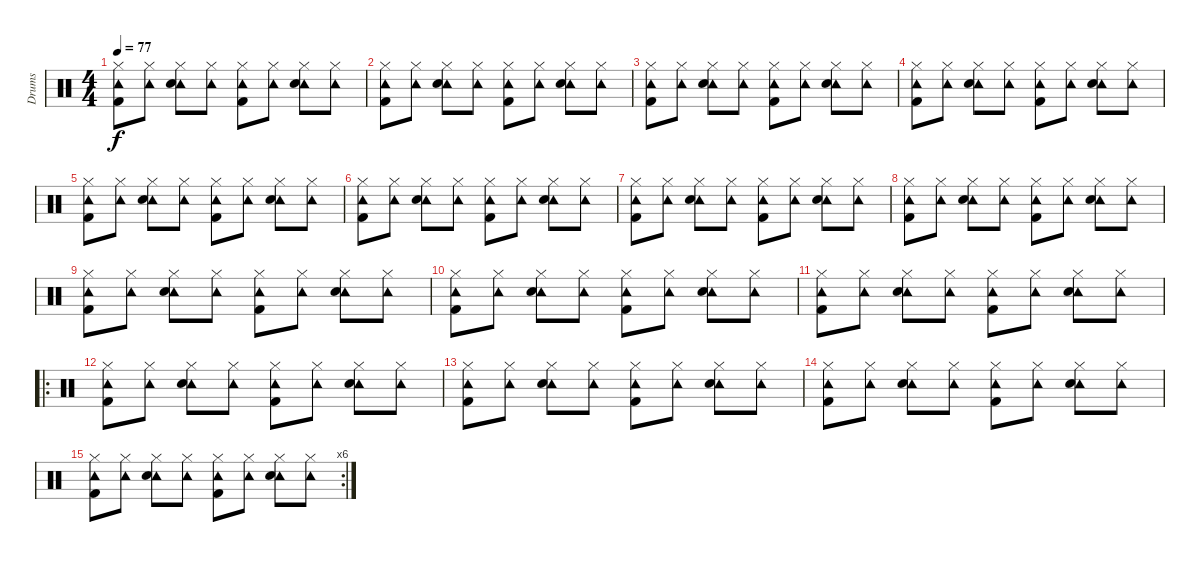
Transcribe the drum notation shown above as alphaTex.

\track ("Drums" "Drums") {instrument percussion}
\staff {score}
\articulation defaults
\ts (4 4)
\tempo 77
\clef neutral
\ks c
("Tambourine (hit)" "Hi-Hat (closed)" "Kick (hit) 2").8{dy f} ("Tambourine (hit)" "Hi-Hat (closed)").8 ("Tambourine (hit)" "Hi-Hat (closed)" "Electric Snare (hit)").8 ("Tambourine (hit)" "Hi-Hat (closed)").8 ("Tambourine (hit)" "Hi-Hat (closed)" "Kick (hit) 2").8 ("Tambourine (hit)" "Hi-Hat (closed)").8 ("Tambourine (hit)" "Hi-Hat (closed)" "Electric Snare (hit)").8 ("Tambourine (hit)" "Hi-Hat (closed)").8 |
("Tambourine (hit)" "Hi-Hat (closed)" "Kick (hit) 2").8 ("Tambourine (hit)" "Hi-Hat (closed)").8 ("Tambourine (hit)" "Hi-Hat (closed)" "Electric Snare (hit)").8 ("Tambourine (hit)" "Hi-Hat (closed)").8 ("Tambourine (hit)" "Hi-Hat (closed)" "Kick (hit) 2").8 ("Tambourine (hit)" "Hi-Hat (closed)").8 ("Tambourine (hit)" "Hi-Hat (closed)" "Electric Snare (hit)").8 ("Tambourine (hit)" "Hi-Hat (closed)").8 |
("Tambourine (hit)" "Hi-Hat (closed)" "Kick (hit) 2").8 ("Tambourine (hit)" "Hi-Hat (closed)").8 ("Tambourine (hit)" "Hi-Hat (closed)" "Electric Snare (hit)").8 ("Tambourine (hit)" "Hi-Hat (closed)").8 ("Tambourine (hit)" "Hi-Hat (closed)" "Kick (hit) 2").8 ("Tambourine (hit)" "Hi-Hat (closed)").8 ("Tambourine (hit)" "Hi-Hat (closed)" "Electric Snare (hit)").8 ("Tambourine (hit)" "Hi-Hat (closed)").8 |
("Tambourine (hit)" "Hi-Hat (closed)" "Kick (hit) 2").8 ("Tambourine (hit)" "Hi-Hat (closed)").8 ("Tambourine (hit)" "Hi-Hat (closed)" "Electric Snare (hit)").8 ("Tambourine (hit)" "Hi-Hat (closed)").8 ("Tambourine (hit)" "Hi-Hat (closed)" "Kick (hit) 2").8 ("Tambourine (hit)" "Hi-Hat (closed)").8 ("Tambourine (hit)" "Hi-Hat (closed)" "Electric Snare (hit)").8 ("Tambourine (hit)" "Hi-Hat (closed)").8 |
("Tambourine (hit)" "Hi-Hat (closed)" "Kick (hit) 2").8 ("Tambourine (hit)" "Hi-Hat (closed)").8 ("Tambourine (hit)" "Hi-Hat (closed)" "Electric Snare (hit)").8 ("Tambourine (hit)" "Hi-Hat (closed)").8 ("Tambourine (hit)" "Hi-Hat (closed)" "Kick (hit) 2").8 ("Tambourine (hit)" "Hi-Hat (closed)").8 ("Tambourine (hit)" "Hi-Hat (closed)" "Electric Snare (hit)").8 ("Tambourine (hit)" "Hi-Hat (closed)").8 |
("Tambourine (hit)" "Hi-Hat (closed)" "Kick (hit) 2").8 ("Tambourine (hit)" "Hi-Hat (closed)").8 ("Tambourine (hit)" "Hi-Hat (closed)" "Electric Snare (hit)").8 ("Tambourine (hit)" "Hi-Hat (closed)").8 ("Tambourine (hit)" "Hi-Hat (closed)" "Kick (hit) 2").8 ("Tambourine (hit)" "Hi-Hat (closed)").8 ("Tambourine (hit)" "Hi-Hat (closed)" "Electric Snare (hit)").8 ("Tambourine (hit)" "Hi-Hat (closed)").8 |
("Tambourine (hit)" "Hi-Hat (closed)" "Kick (hit) 2").8 ("Tambourine (hit)" "Hi-Hat (closed)").8 ("Tambourine (hit)" "Hi-Hat (closed)" "Electric Snare (hit)").8 ("Tambourine (hit)" "Hi-Hat (closed)").8 ("Tambourine (hit)" "Hi-Hat (closed)" "Kick (hit) 2").8 ("Tambourine (hit)" "Hi-Hat (closed)").8 ("Tambourine (hit)" "Hi-Hat (closed)" "Electric Snare (hit)").8 ("Tambourine (hit)" "Hi-Hat (closed)").8 |
("Tambourine (hit)" "Hi-Hat (closed)" "Kick (hit) 2").8 ("Tambourine (hit)" "Hi-Hat (closed)").8 ("Tambourine (hit)" "Hi-Hat (closed)" "Electric Snare (hit)").8 ("Tambourine (hit)" "Hi-Hat (closed)").8 ("Tambourine (hit)" "Hi-Hat (closed)" "Kick (hit) 2").8 ("Tambourine (hit)" "Hi-Hat (closed)").8 ("Tambourine (hit)" "Hi-Hat (closed)" "Electric Snare (hit)").8 ("Tambourine (hit)" "Hi-Hat (closed)").8 |
("Tambourine (hit)" "Hi-Hat (closed)" "Kick (hit) 2").8 ("Tambourine (hit)" "Hi-Hat (closed)").8 ("Tambourine (hit)" "Hi-Hat (closed)" "Electric Snare (hit)").8 ("Tambourine (hit)" "Hi-Hat (closed)").8 ("Tambourine (hit)" "Hi-Hat (closed)" "Kick (hit) 2").8 ("Tambourine (hit)" "Hi-Hat (closed)").8 ("Tambourine (hit)" "Hi-Hat (closed)" "Electric Snare (hit)").8 ("Tambourine (hit)" "Hi-Hat (closed)").8 |
("Tambourine (hit)" "Hi-Hat (closed)" "Kick (hit) 2").8 ("Tambourine (hit)" "Hi-Hat (closed)").8 ("Tambourine (hit)" "Hi-Hat (closed)" "Electric Snare (hit)").8 ("Tambourine (hit)" "Hi-Hat (closed)").8 ("Tambourine (hit)" "Hi-Hat (closed)" "Kick (hit) 2").8 ("Tambourine (hit)" "Hi-Hat (closed)").8 ("Tambourine (hit)" "Hi-Hat (closed)" "Electric Snare (hit)").8 ("Tambourine (hit)" "Hi-Hat (closed)").8 |
("Tambourine (hit)" "Hi-Hat (closed)" "Kick (hit) 2").8 ("Tambourine (hit)" "Hi-Hat (closed)").8 ("Tambourine (hit)" "Hi-Hat (closed)" "Electric Snare (hit)").8 ("Tambourine (hit)" "Hi-Hat (closed)").8 ("Tambourine (hit)" "Hi-Hat (closed)" "Kick (hit) 2").8 ("Tambourine (hit)" "Hi-Hat (closed)").8 ("Tambourine (hit)" "Hi-Hat (closed)" "Electric Snare (hit)").8 ("Tambourine (hit)" "Hi-Hat (closed)").8 |
\ro
("Tambourine (hit)" "Hi-Hat (closed)" "Kick (hit) 2").8 ("Tambourine (hit)" "Hi-Hat (closed)").8 ("Tambourine (hit)" "Hi-Hat (closed)" "Electric Snare (hit)").8 ("Tambourine (hit)" "Hi-Hat (closed)").8 ("Tambourine (hit)" "Hi-Hat (closed)" "Kick (hit) 2").8 ("Tambourine (hit)" "Hi-Hat (closed)").8 ("Tambourine (hit)" "Hi-Hat (closed)" "Electric Snare (hit)").8 ("Tambourine (hit)" "Hi-Hat (closed)").8 |
("Tambourine (hit)" "Hi-Hat (closed)" "Kick (hit) 2").8 ("Tambourine (hit)" "Hi-Hat (closed)").8 ("Tambourine (hit)" "Hi-Hat (closed)" "Electric Snare (hit)").8 ("Tambourine (hit)" "Hi-Hat (closed)").8 ("Tambourine (hit)" "Hi-Hat (closed)" "Kick (hit) 2").8 ("Tambourine (hit)" "Hi-Hat (closed)").8 ("Tambourine (hit)" "Hi-Hat (closed)" "Electric Snare (hit)").8 ("Tambourine (hit)" "Hi-Hat (closed)").8 |
("Tambourine (hit)" "Hi-Hat (closed)" "Kick (hit) 2").8 ("Tambourine (hit)" "Hi-Hat (closed)").8 ("Tambourine (hit)" "Hi-Hat (closed)" "Electric Snare (hit)").8 ("Tambourine (hit)" "Hi-Hat (closed)").8 ("Tambourine (hit)" "Hi-Hat (closed)" "Kick (hit) 2").8 ("Tambourine (hit)" "Hi-Hat (closed)").8 ("Tambourine (hit)" "Hi-Hat (closed)" "Electric Snare (hit)").8 ("Tambourine (hit)" "Hi-Hat (closed)").8 |
\rc 6
("Tambourine (hit)" "Hi-Hat (closed)" "Kick (hit) 2").8 ("Tambourine (hit)" "Hi-Hat (closed)").8 ("Tambourine (hit)" "Hi-Hat (closed)" "Electric Snare (hit)").8 ("Tambourine (hit)" "Hi-Hat (closed)").8 ("Tambourine (hit)" "Hi-Hat (closed)" "Kick (hit) 2").8 ("Tambourine (hit)" "Hi-Hat (closed)").8 ("Tambourine (hit)" "Hi-Hat (closed)" "Electric Snare (hit)").8 ("Tambourine (hit)" "Hi-Hat (closed)").8
